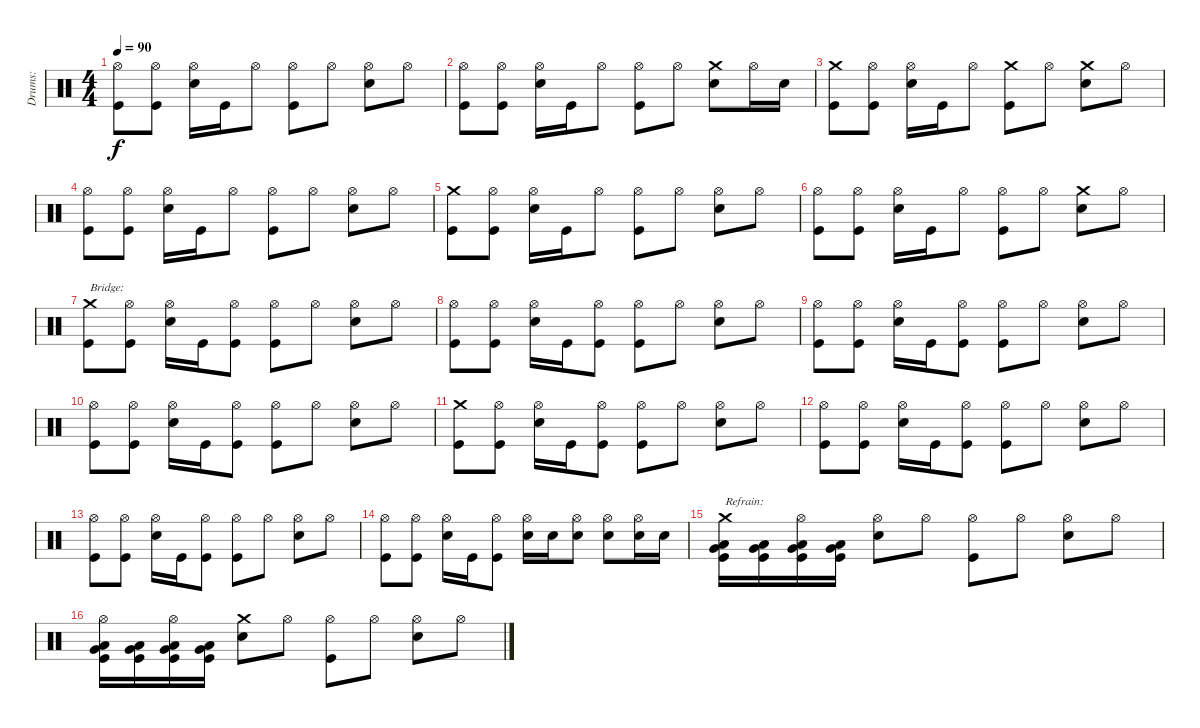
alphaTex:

\track ("Drums:" "Drums:") {instrument percussion}
\staff {score}
\articulation defaults
\ts (4 4)
\tempo 90
\clef neutral
\ks c
("Hi-Hat (open)" "Kick (hit)").8{dy f} ("Hi-Hat (open)" "Kick (hit)").8 ("Hi-Hat (open)" "Snare (hit) 2").16 "Kick (hit)".16 "Hi-Hat (open)".8 ("Hi-Hat (open)" "Kick (hit)").8 "Hi-Hat (open)".8 ("Hi-Hat (open)" "Snare (hit) 2").8 "Hi-Hat (open)".8 |
("Hi-Hat (open)" "Kick (hit)").8 ("Hi-Hat (open)" "Kick (hit)").8 ("Hi-Hat (open)" "Snare (hit) 2").16 "Kick (hit)".16 "Hi-Hat (open)".8 ("Hi-Hat (open)" "Kick (hit)").8 "Hi-Hat (open)".8 ("Crash medium (hit)" "Snare (hit) 2").8 "Hi-Hat (open)".16 "Snare (hit) 2".16 |
("Crash medium (hit)" "Kick (hit)").8 ("Hi-Hat (open)" "Kick (hit)").8 ("Hi-Hat (open)" "Snare (hit) 2").16 "Kick (hit)".16 "Hi-Hat (open)".8 ("Crash medium (hit)" "Kick (hit)").8 "Hi-Hat (open)".8 ("Crash medium (hit)" "Snare (hit) 2").8 "Hi-Hat (open)".8 |
("Hi-Hat (open)" "Kick (hit)").8 ("Hi-Hat (open)" "Kick (hit)").8 ("Hi-Hat (open)" "Snare (hit) 2").16 "Kick (hit)".16 "Hi-Hat (open)".8 ("Hi-Hat (open)" "Kick (hit)").8 "Hi-Hat (open)".8 ("Hi-Hat (open)" "Snare (hit) 2").8 "Hi-Hat (open)".8 |
("Crash medium (hit)" "Kick (hit)").8 ("Hi-Hat (open)" "Kick (hit)").8 ("Hi-Hat (open)" "Snare (hit) 2").16 "Kick (hit)".16 "Hi-Hat (open)".8 ("Hi-Hat (open)" "Kick (hit)").8 "Hi-Hat (open)".8 ("Hi-Hat (open)" "Snare (hit) 2").8 "Hi-Hat (open)".8 |
("Hi-Hat (open)" "Kick (hit)").8 ("Hi-Hat (open)" "Kick (hit)").8 ("Hi-Hat (open)" "Snare (hit) 2").16 "Kick (hit)".16 "Hi-Hat (open)".8 ("Hi-Hat (open)" "Kick (hit)").8 "Hi-Hat (open)".8 ("Crash medium (hit)" "Snare (hit) 2").8 "Hi-Hat (open)".8 |
("Crash medium (hit)" "Kick (hit)").8{txt "Bridge:"} ("Hi-Hat (open)" "Kick (hit)").8 ("Hi-Hat (open)" "Snare (hit) 2").16 "Kick (hit)".16 ("Hi-Hat (open)" "Kick (hit)").8 ("Hi-Hat (open)" "Kick (hit)").8 "Hi-Hat (open)".8 ("Hi-Hat (open)" "Snare (hit) 2").8 "Hi-Hat (open)".8 |
("Hi-Hat (open)" "Kick (hit)").8 ("Hi-Hat (open)" "Kick (hit)").8 ("Hi-Hat (open)" "Snare (hit) 2").16 "Kick (hit)".16 ("Hi-Hat (open)" "Kick (hit)").8 ("Hi-Hat (open)" "Kick (hit)").8 "Hi-Hat (open)".8 ("Hi-Hat (open)" "Snare (hit) 2").8 "Hi-Hat (open)".8 |
("Hi-Hat (open)" "Kick (hit)").8 ("Hi-Hat (open)" "Kick (hit)").8 ("Hi-Hat (open)" "Snare (hit) 2").16 "Kick (hit)".16 ("Hi-Hat (open)" "Kick (hit)").8 ("Hi-Hat (open)" "Kick (hit)").8 "Hi-Hat (open)".8 ("Hi-Hat (open)" "Snare (hit) 2").8 "Hi-Hat (open)".8 |
("Hi-Hat (open)" "Kick (hit)").8 ("Hi-Hat (open)" "Kick (hit)").8 ("Hi-Hat (open)" "Snare (hit) 2").16 "Kick (hit)".16 ("Hi-Hat (open)" "Kick (hit)").8 ("Hi-Hat (open)" "Kick (hit)").8 "Hi-Hat (open)".8 ("Hi-Hat (open)" "Snare (hit) 2").8 "Hi-Hat (open)".8 |
("Crash medium (hit)" "Kick (hit)").8 ("Hi-Hat (open)" "Kick (hit)").8 ("Hi-Hat (open)" "Snare (hit) 2").16 "Kick (hit)".16 ("Hi-Hat (open)" "Kick (hit)").8 ("Hi-Hat (open)" "Kick (hit)").8 "Hi-Hat (open)".8 ("Hi-Hat (open)" "Snare (hit) 2").8 "Hi-Hat (open)".8 |
("Hi-Hat (open)" "Kick (hit)").8 ("Hi-Hat (open)" "Kick (hit)").8 ("Hi-Hat (open)" "Snare (hit) 2").16 "Kick (hit)".16 ("Hi-Hat (open)" "Kick (hit)").8 ("Hi-Hat (open)" "Kick (hit)").8 "Hi-Hat (open)".8 ("Hi-Hat (open)" "Snare (hit) 2").8 "Hi-Hat (open)".8 |
("Hi-Hat (open)" "Kick (hit)").8 ("Hi-Hat (open)" "Kick (hit)").8 ("Hi-Hat (open)" "Snare (hit) 2").16 "Kick (hit)".16 ("Hi-Hat (open)" "Kick (hit)").8 ("Hi-Hat (open)" "Kick (hit)").8 "Hi-Hat (open)".8 ("Hi-Hat (open)" "Snare (hit) 2").8 "Hi-Hat (open)".8 |
("Hi-Hat (open)" "Kick (hit)").8 ("Hi-Hat (open)" "Kick (hit)").8 ("Hi-Hat (open)" "Snare (hit) 2").16 "Kick (hit)".16 ("Hi-Hat (open)" "Kick (hit)").8 ("Hi-Hat (open)" "Snare (hit) 2").16 "Snare (hit) 2".16 ("Hi-Hat (open)" "Snare (hit) 2").8 ("Hi-Hat (open)" "Snare (hit) 2").8 ("Hi-Hat (open)" "Snare (hit) 2").16 "Snare (hit) 2".16 |
("Crash medium (hit)" "Very Low Tom (hit)" "Low Floor Tom (hit)" "Kick (hit)").16{txt "Refrain:"} ("Very Low Tom (hit)" "Low Floor Tom (hit)" "Kick (hit)").16 ("Hi-Hat (open)" "Very Low Tom (hit)" "Low Floor Tom (hit)" "Kick (hit)").16 ("Very Low Tom (hit)" "Low Floor Tom (hit)" "Kick (hit)").16 ("Hi-Hat (open)" "Snare (hit) 2").8 "Hi-Hat (open)".8 ("Hi-Hat (open)" "Kick (hit)").8 "Hi-Hat (open)".8 ("Hi-Hat (open)" "Snare (hit) 2").8 "Hi-Hat (open)".8 |
("Hi-Hat (open)" "Very Low Tom (hit)" "Low Floor Tom (hit)" "Kick (hit)").16 ("Very Low Tom (hit)" "Low Floor Tom (hit)" "Kick (hit)").16 ("Hi-Hat (open)" "Very Low Tom (hit)" "Low Floor Tom (hit)" "Kick (hit)").16 ("Very Low Tom (hit)" "Low Floor Tom (hit)" "Kick (hit)").16 ("Crash medium (hit)" "Snare (hit) 2").8 "Hi-Hat (open)".8 ("Hi-Hat (open)" "Kick (hit)").8 "Hi-Hat (open)".8 ("Hi-Hat (open)" "Snare (hit) 2").8 "Hi-Hat (open)".8
